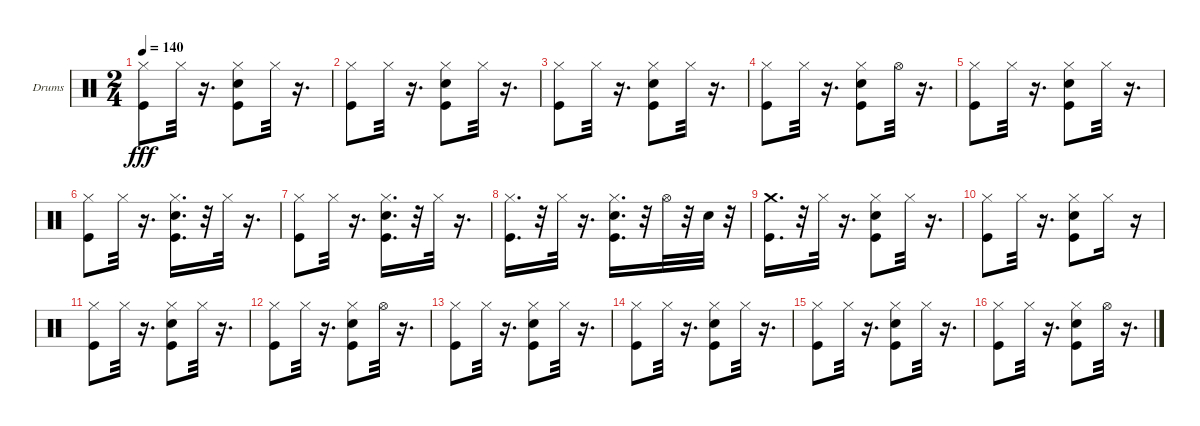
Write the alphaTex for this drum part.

\bracketExtendMode groupsimilarinstruments
\firstSystemTrackNameOrientation horizontal
\otherSystemsTrackNameOrientation horizontal
\track ("Ударные" "Drums") {instrument percussion}
\staff {score}
\articulation defaults
\ts (2 4)
\tempo 140
\clef neutral
\ks c
("Kick (hit)" "Hi-Hat (closed)").8{dy fff} "Hi-Hat (closed)".32 r.16{d} ("Snare (hit) 2" "Kick (hit)" "Hi-Hat (closed)").8 "Hi-Hat (closed)".32 r.16{d} |
("Kick (hit)" "Hi-Hat (closed)").8 "Hi-Hat (closed)".32 r.16{d} ("Snare (hit) 2" "Kick (hit)" "Hi-Hat (closed)").8 "Hi-Hat (closed)".32 r.16{d} |
("Kick (hit)" "Hi-Hat (closed)").8 "Hi-Hat (closed)".32 r.16{d} ("Snare (hit) 2" "Kick (hit)" "Hi-Hat (closed)").8 "Hi-Hat (closed)".32 r.16{d} |
("Kick (hit)" "Hi-Hat (closed)").8 "Hi-Hat (closed)".32 r.16{d} ("Snare (hit) 2" "Kick (hit)" "Hi-Hat (closed)").8 "Hi-Hat (open)".32 r.16{d} |
("Kick (hit)" "Hi-Hat (closed)").8 "Hi-Hat (closed)".32 r.16{d} ("Snare (hit) 2" "Kick (hit)" "Hi-Hat (closed)").8 "Hi-Hat (closed)".32 r.16{d} |
("Kick (hit)" "Hi-Hat (closed)").8 "Hi-Hat (closed)".32 r.16{d} ("Snare (hit) 2" "Kick (hit)" "Hi-Hat (closed)").16{d} r.32 "Hi-Hat (closed)".32 r.16{d} |
("Kick (hit)" "Hi-Hat (closed)").8 "Hi-Hat (closed)".32 r.16{d} ("Snare (hit) 2" "Kick (hit)" "Hi-Hat (closed)").16{d} r.32 "Hi-Hat (closed)".32 r.16{d} |
("Kick (hit)" "Hi-Hat (closed)").16{d} r.32 "Hi-Hat (closed)".32 r.16{d} ("Snare (hit) 2" "Kick (hit)" "Hi-Hat (closed)").16{d} r.32 "Hi-Hat (open)".32 r.32 "Snare (hit) 2".32 r.32 |
("Kick (hit)" "Crash medium (hit)").16{d} r.32 "Hi-Hat (closed)".32 r.16{d} ("Snare (hit) 2" "Hi-Hat (closed)" "Kick (hit)").8 "Hi-Hat (closed)".32 r.16{d} |
("Kick (hit)" "Hi-Hat (closed)").8 "Hi-Hat (closed)".32 r.16{d} ("Snare (hit) 2" "Kick (hit)" "Hi-Hat (closed)").8 "Hi-Hat (closed)".16 r.16 |
("Kick (hit)" "Hi-Hat (closed)").8 "Hi-Hat (closed)".32 r.16{d} ("Snare (hit) 2" "Kick (hit)" "Hi-Hat (closed)").8 "Hi-Hat (closed)".32 r.16{d} |
("Kick (hit)" "Hi-Hat (closed)").8 "Hi-Hat (closed)".32 r.16{d} ("Kick (hit)" "Snare (hit) 2" "Hi-Hat (closed)").8 "Hi-Hat (open)".32 r.16{d} |
("Kick (hit)" "Hi-Hat (closed)").8 "Hi-Hat (closed)".32 r.16{d} ("Hi-Hat (closed)" "Snare (hit) 2" "Kick (hit)").8 "Hi-Hat (closed)".32 r.16{d} |
("Kick (hit)" "Hi-Hat (closed)").8 "Hi-Hat (closed)".32 r.16{d} ("Snare (hit) 2" "Kick (hit)" "Hi-Hat (closed)").8 "Hi-Hat (closed)".32 r.16{d} |
("Kick (hit)" "Hi-Hat (closed)").8 "Hi-Hat (closed)".32 r.16{d} ("Snare (hit) 2" "Kick (hit)" "Hi-Hat (closed)").8 "Hi-Hat (closed)".32 r.16{d} |
("Kick (hit)" "Hi-Hat (closed)").8 "Hi-Hat (closed)".32 r.16{d} ("Snare (hit) 2" "Kick (hit)" "Hi-Hat (closed)").8 "Hi-Hat (open)".32 r.16{d}
